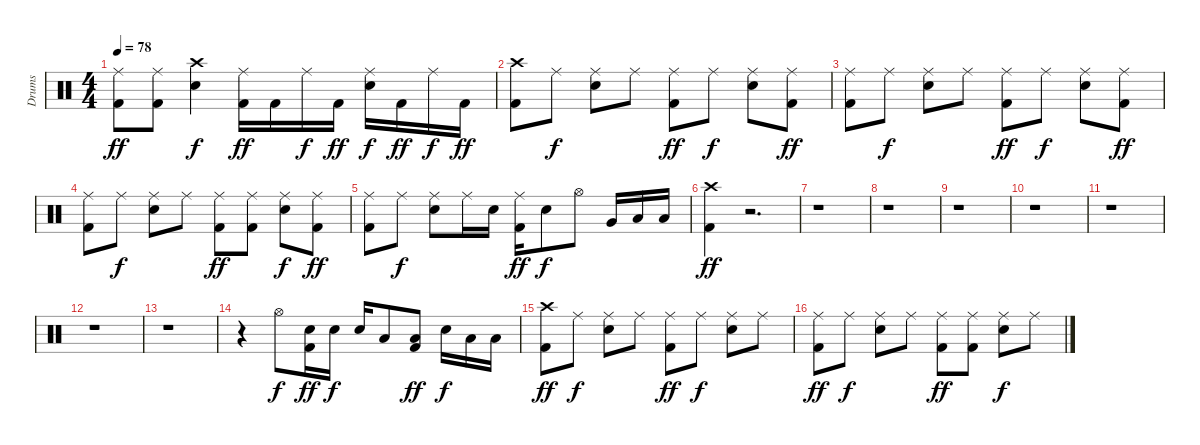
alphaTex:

\track ("Drums" "Drums") {instrument percussion}
\staff {score}
\articulation defaults
\ts (4 4)
\tempo 78
\clef neutral
\ks c
("Ride (middle)" "Kick (hit) 2").8{dy ff} ("Ride (middle)" "Kick (hit) 2").8 ("Crash high (hit)" "Snare (hit) 2").4{dy f} ("Ride (middle)" "Kick (hit) 2").16{dy ff} "Kick (hit) 2".16 "Ride (middle)".16{dy f} "Kick (hit) 2".16{dy ff} ("Ride (middle)" "Snare (hit) 2").16{dy f} "Kick (hit) 2".16{dy ff} "Ride (middle)".16{dy f} "Kick (hit) 2".16{dy ff} |
("Crash high (hit)" "Kick (hit) 2").8 "Ride (middle)".8{dy f} ("Ride (middle)" "Snare (hit) 2").8 "Ride (middle)".8 ("Ride (middle)" "Kick (hit) 2").8{dy ff} "Ride (middle)".8{dy f} ("Ride (middle)" "Snare (hit) 2").8 ("Ride (middle)" "Kick (hit) 2").8{dy ff} |
("Ride (middle)" "Kick (hit) 2").8 "Ride (middle)".8{dy f} ("Ride (middle)" "Snare (hit) 2").8 "Ride (middle)".8 ("Ride (middle)" "Kick (hit) 2").8{dy ff} "Ride (middle)".8{dy f} ("Ride (middle)" "Snare (hit) 2").8 ("Ride (middle)" "Kick (hit) 2").8{dy ff} |
("Ride (middle)" "Kick (hit) 2").8 "Ride (middle)".8{dy f} ("Ride (middle)" "Snare (hit) 2").8 "Ride (middle)".8 ("Ride (middle)" "Kick (hit) 2").8{dy ff} ("Ride (middle)" "Kick (hit) 2").8 ("Ride (middle)" "Snare (hit) 2").8{dy f} ("Ride (middle)" "Kick (hit) 2").8{dy ff} |
("Ride (middle)" "Kick (hit) 2").8 "Ride (middle)".8{dy f} ("Ride (middle)" "Snare (hit) 2").8 "Ride (middle)".16 "Snare (hit) 2".16 ("Ride (middle)" "Kick (hit) 2").16{dy ff} "Snare (hit) 2".8{dy f} "Hi-Hat (open)".8 "Very Low Tom (hit)".16 "Low Tom (hit)".16 "Low Tom (hit)".16 |
("Crash high (hit)" "Kick (hit) 2").4{dy ff} r.2{d} |
r.1 |
r.1 |
r.1 |
r.1 |
r.1 |
r.1 |
r.1 |
r.4 "Hi-Hat (open)".8{dy f} ("Snare (hit) 2" "Kick (hit) 2").16{dy ff} "Snare (hit) 2".16{dy f} "Snare (hit) 2".16 "Low Tom (hit)".8 ("Low Tom (hit)" "Kick (hit) 2").8{dy ff} "Snare (hit) 2".16{dy f} "Low Tom (hit)".16 "Low Tom (hit)".16 |
("Crash high (hit)" "Kick (hit) 2").8{dy ff} "Ride (middle)".8{dy f} ("Ride (middle)" "Snare (hit) 2").8 "Ride (middle)".8 ("Ride (middle)" "Kick (hit) 2").8{dy ff} "Ride (middle)".8{dy f} ("Ride (middle)" "Snare (hit) 2").8 "Ride (middle)".8 |
("Ride (middle)" "Kick (hit) 2").8{dy ff} "Ride (middle)".8{dy f} ("Ride (middle)" "Snare (hit) 2").8 "Ride (middle)".8 ("Ride (middle)" "Kick (hit) 2").8{dy ff} ("Ride (middle)" "Kick (hit) 2").8 ("Ride (middle)" "Snare (hit) 2").8{dy f} "Ride (middle)".8
